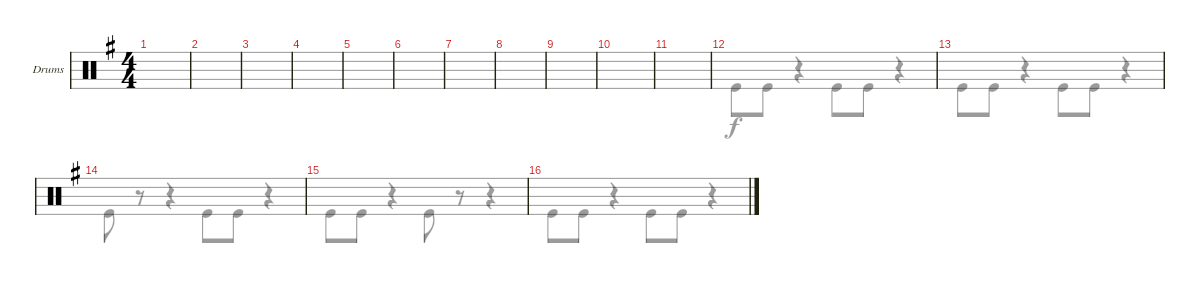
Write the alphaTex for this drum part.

\defaultSystemsLayout 4
\bracketExtendMode groupsimilarinstruments
\firstSystemTrackNameOrientation horizontal
\otherSystemsTrackNameOrientation horizontal
\track ("Drumkit" "Drums") {instrument percussion}
\staff {score}
\articulation defaults
\voice
\ts (4 4)
\tempo (100 hide)
\clef neutral
\ks g
|
|
|
|
|
|
|
|
|
|
\tempo (80 hide)
|
|
|
|
|
\voice
\clef neutral
\ks g
|
|
|
|
|
|
|
|
|
|
|
"Kick (hit)".8 "Kick (hit)".8 r.4 "Kick (hit)".8 "Kick (hit)".8 r.4 |
"Kick (hit)".8 "Kick (hit)".8 r.4 "Kick (hit)".8 "Kick (hit)".8 r.4 |
"Kick (hit)".8 r.8 r.4 "Kick (hit)".8 "Kick (hit)".8 r.4 |
"Kick (hit)".8 "Kick (hit)".8 r.4 "Kick (hit)".8 r.8 r.4 |
"Kick (hit)".8 "Kick (hit)".8 r.4 "Kick (hit)".8 "Kick (hit)".8 r.4
